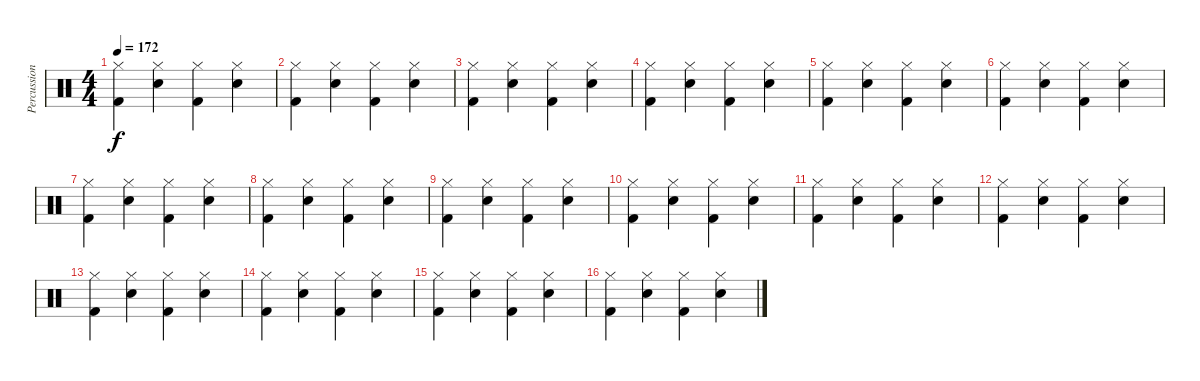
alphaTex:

\track ("Percussion" "Percussion") {instrument percussion}
\staff {score}
\articulation defaults
\ts (4 4)
\tempo 172
\clef neutral
\ks c
("Hi-Hat (closed)" "Kick (hit) 2").4{dy f} ("Hi-Hat (closed)" "Snare (hit) 2").4 ("Hi-Hat (closed)" "Kick (hit) 2").4 ("Hi-Hat (closed)" "Snare (hit) 2").4 |
("Hi-Hat (closed)" "Kick (hit) 2").4 ("Hi-Hat (closed)" "Snare (hit) 2").4 ("Hi-Hat (closed)" "Kick (hit) 2").4 ("Hi-Hat (closed)" "Snare (hit) 2").4 |
("Hi-Hat (closed)" "Kick (hit) 2").4 ("Hi-Hat (closed)" "Snare (hit) 2").4 ("Hi-Hat (closed)" "Kick (hit) 2").4 ("Hi-Hat (closed)" "Snare (hit) 2").4 |
("Hi-Hat (closed)" "Kick (hit) 2").4 ("Hi-Hat (closed)" "Snare (hit) 2").4 ("Hi-Hat (closed)" "Kick (hit) 2").4 ("Hi-Hat (closed)" "Snare (hit) 2").4 |
("Hi-Hat (closed)" "Kick (hit) 2").4 ("Hi-Hat (closed)" "Snare (hit) 2").4 ("Hi-Hat (closed)" "Kick (hit) 2").4 ("Hi-Hat (closed)" "Snare (hit) 2").4 |
("Hi-Hat (closed)" "Kick (hit) 2").4 ("Hi-Hat (closed)" "Snare (hit) 2").4 ("Hi-Hat (closed)" "Kick (hit) 2").4 ("Hi-Hat (closed)" "Snare (hit) 2").4 |
("Hi-Hat (closed)" "Kick (hit) 2").4 ("Hi-Hat (closed)" "Snare (hit) 2").4 ("Hi-Hat (closed)" "Kick (hit) 2").4 ("Hi-Hat (closed)" "Snare (hit) 2").4 |
("Hi-Hat (closed)" "Kick (hit) 2").4 ("Hi-Hat (closed)" "Snare (hit) 2").4 ("Hi-Hat (closed)" "Kick (hit) 2").4 ("Hi-Hat (closed)" "Snare (hit) 2").4 |
("Hi-Hat (closed)" "Kick (hit) 2").4 ("Hi-Hat (closed)" "Snare (hit) 2").4 ("Hi-Hat (closed)" "Kick (hit) 2").4 ("Hi-Hat (closed)" "Snare (hit) 2").4 |
("Hi-Hat (closed)" "Kick (hit) 2").4 ("Hi-Hat (closed)" "Snare (hit) 2").4 ("Hi-Hat (closed)" "Kick (hit) 2").4 ("Hi-Hat (closed)" "Snare (hit) 2").4 |
("Hi-Hat (closed)" "Kick (hit) 2").4 ("Hi-Hat (closed)" "Snare (hit) 2").4 ("Hi-Hat (closed)" "Kick (hit) 2").4 ("Hi-Hat (closed)" "Snare (hit) 2").4 |
("Hi-Hat (closed)" "Kick (hit) 2").4 ("Hi-Hat (closed)" "Snare (hit) 2").4 ("Hi-Hat (closed)" "Kick (hit) 2").4 ("Hi-Hat (closed)" "Snare (hit) 2").4 |
("Hi-Hat (closed)" "Kick (hit) 2").4 ("Hi-Hat (closed)" "Snare (hit) 2").4 ("Hi-Hat (closed)" "Kick (hit) 2").4 ("Hi-Hat (closed)" "Snare (hit) 2").4 |
("Hi-Hat (closed)" "Kick (hit) 2").4 ("Hi-Hat (closed)" "Snare (hit) 2").4 ("Hi-Hat (closed)" "Kick (hit) 2").4 ("Hi-Hat (closed)" "Snare (hit) 2").4 |
("Hi-Hat (closed)" "Kick (hit) 2").4 ("Hi-Hat (closed)" "Snare (hit) 2").4 ("Hi-Hat (closed)" "Kick (hit) 2").4 ("Hi-Hat (closed)" "Snare (hit) 2").4 |
("Hi-Hat (closed)" "Kick (hit) 2").4 ("Hi-Hat (closed)" "Snare (hit) 2").4 ("Hi-Hat (closed)" "Kick (hit) 2").4 ("Hi-Hat (closed)" "Snare (hit) 2").4
